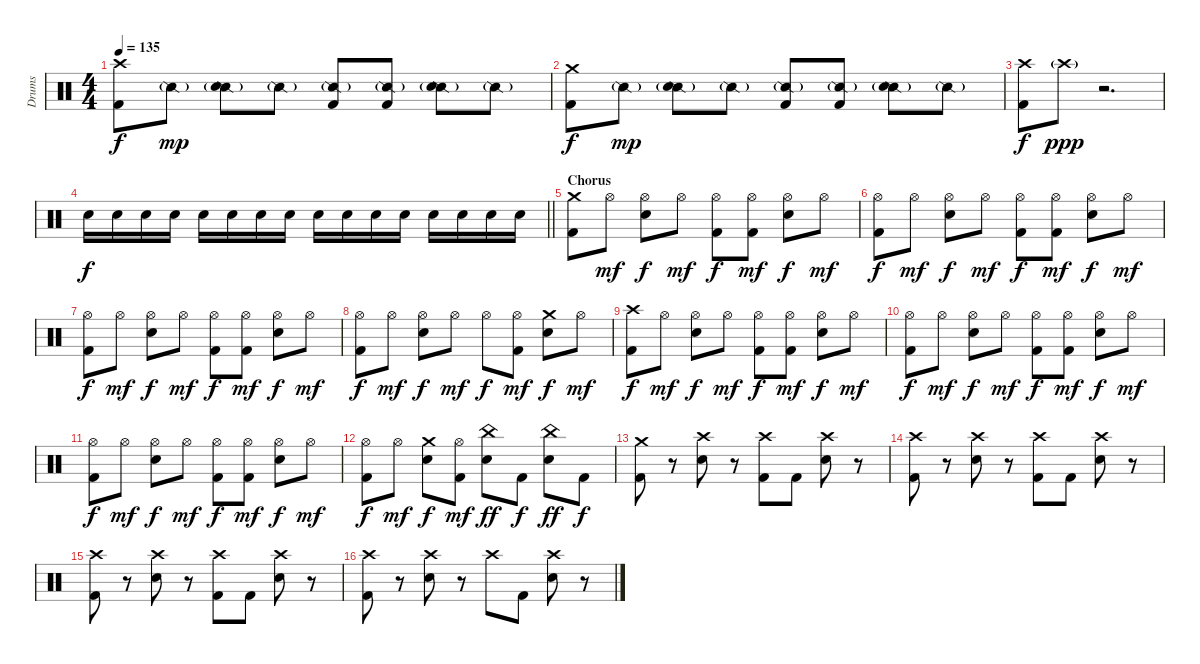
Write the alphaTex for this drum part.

\track ("Drums" "Drums") {instrument percussion}
\staff {score}
\articulation defaults
\ts (4 4)
\tempo 135
\clef neutral
\ks c
("Crash high (hit)" "Kick (hit) 2").8{dy f} "Snare (side stick) 2"{g}.8{dy mp} ("Snare (side stick) 2"{g} "Snare (hit) 2").8 "Snare (side stick) 2"{g}.8 ("Snare (side stick) 2"{g} "Kick (hit) 2").8 ("Snare (side stick) 2"{g} "Kick (hit) 2").8 ("Snare (side stick) 2"{g} "Snare (hit) 2").8 "Snare (side stick) 2"{g}.8 |
("Crash medium (hit)" "Kick (hit) 2").8{dy f} "Snare (side stick) 2"{g}.8{dy mp} ("Snare (side stick) 2"{g} "Snare (hit) 2").8 "Snare (side stick) 2"{g}.8 ("Snare (side stick) 2"{g} "Kick (hit) 2").8 ("Snare (side stick) 2"{g} "Kick (hit) 2").8 ("Snare (side stick) 2"{g} "Snare (hit) 2").8 "Snare (side stick) 2"{g}.8 |
("Crash high (hit)" "Kick (hit) 2").8{dy f} "Crash high (hit)"{g}.8{dy ppp} r.2{d} |
\barLineRight lightlight "Electric Snare (hit)".16{dy f} "Electric Snare (hit)".16 "Electric Snare (hit)".16 "Electric Snare (hit)".16 "Electric Snare (hit)".16 "Electric Snare (hit)".16 "Electric Snare (hit)".16 "Electric Snare (hit)".16 "Electric Snare (hit)".16 "Electric Snare (hit)".16 "Electric Snare (hit)".16 "Electric Snare (hit)".16 "Electric Snare (hit)".16 "Electric Snare (hit)".16 "Electric Snare (hit)".16 "Electric Snare (hit)".16
|
\section ("" "Chorus")
("Crash medium (hit)" "Kick (hit) 2").8 "Hi-Hat (open)".8{dy mf} ("Hi-Hat (open)" "Electric Snare (hit)").8{dy f} "Hi-Hat (open)".8{dy mf} ("Hi-Hat (open)" "Kick (hit) 2").8{dy f} ("Hi-Hat (open)" "Kick (hit) 2").8{dy mf} ("Hi-Hat (open)" "Electric Snare (hit)").8{dy f} "Hi-Hat (open)".8{dy mf} |
("Hi-Hat (open)" "Kick (hit) 2").8{dy f} "Hi-Hat (open)".8{dy mf} ("Hi-Hat (open)" "Electric Snare (hit)").8{dy f} "Hi-Hat (open)".8{dy mf} ("Hi-Hat (open)" "Kick (hit) 2").8{dy f} ("Hi-Hat (open)" "Kick (hit) 2").8{dy mf} ("Hi-Hat (open)" "Electric Snare (hit)").8{dy f} "Hi-Hat (open)".8{dy mf} |
("Hi-Hat (open)" "Kick (hit) 2").8{dy f} "Hi-Hat (open)".8{dy mf} ("Hi-Hat (open)" "Electric Snare (hit)").8{dy f} "Hi-Hat (open)".8{dy mf} ("Hi-Hat (open)" "Kick (hit) 2").8{dy f} ("Hi-Hat (open)" "Kick (hit) 2").8{dy mf} ("Hi-Hat (open)" "Electric Snare (hit)").8{dy f} "Hi-Hat (open)".8{dy mf} |
("Hi-Hat (open)" "Kick (hit) 2").8{dy f} "Hi-Hat (open)".8{dy mf} ("Hi-Hat (open)" "Electric Snare (hit)").8{dy f} "Hi-Hat (open)".8{dy mf} "Hi-Hat (open)".8{dy f} ("Hi-Hat (open)" "Kick (hit) 2").8{dy mf} ("Crash medium (hit)" "Electric Snare (hit)").8{dy f} "Hi-Hat (open)".8{dy mf} |
("Crash high (hit)" "Kick (hit) 2").8{dy f} "Hi-Hat (open)".8{dy mf} ("Hi-Hat (open)" "Electric Snare (hit)").8{dy f} "Hi-Hat (open)".8{dy mf} ("Hi-Hat (open)" "Kick (hit) 2").8{dy f} ("Hi-Hat (open)" "Kick (hit) 2").8{dy mf} ("Hi-Hat (open)" "Electric Snare (hit)").8{dy f} "Hi-Hat (open)".8{dy mf} |
("Hi-Hat (open)" "Kick (hit) 2").8{dy f} "Hi-Hat (open)".8{dy mf} ("Hi-Hat (open)" "Electric Snare (hit)").8{dy f} "Hi-Hat (open)".8{dy mf} ("Hi-Hat (open)" "Kick (hit) 2").8{dy f} ("Hi-Hat (open)" "Kick (hit) 2").8{dy mf} ("Hi-Hat (open)" "Electric Snare (hit)").8{dy f} "Hi-Hat (open)".8{dy mf} |
("Hi-Hat (open)" "Kick (hit) 2").8{dy f} "Hi-Hat (open)".8{dy mf} ("Hi-Hat (open)" "Electric Snare (hit)").8{dy f} "Hi-Hat (open)".8{dy mf} ("Hi-Hat (open)" "Kick (hit) 2").8{dy f} ("Hi-Hat (open)" "Kick (hit) 2").8{dy mf} ("Hi-Hat (open)" "Electric Snare (hit)").8{dy f} "Hi-Hat (open)".8{dy mf} |
("Hi-Hat (open)" "Kick (hit) 2").8{dy f} "Hi-Hat (open)".8{dy mf} ("Crash medium (hit)" "Electric Snare (hit)").8{dy f} ("Hi-Hat (open)" "Kick (hit) 2").8{dy mf} ("China (hit)" "Electric Snare (hit)").8{dy ff} "Kick (hit) 2".8{dy f} ("China (hit)" "Electric Snare (hit)").8{dy ff} "Kick (hit) 2".8{dy f} |
("Crash medium (hit)" "Kick (hit) 2").8 r.8 ("Crash high (hit)" "Electric Snare (hit)").8 r.8 ("Crash high (hit)" "Kick (hit) 2").8 "Kick (hit) 2".8 ("Crash high (hit)" "Electric Snare (hit)").8 r.8 |
("Crash high (hit)" "Kick (hit) 2").8 r.8 ("Crash high (hit)" "Electric Snare (hit)").8 r.8 ("Crash high (hit)" "Kick (hit) 2").8 "Kick (hit) 2".8 ("Crash high (hit)" "Electric Snare (hit)").8 r.8 |
("Crash high (hit)" "Kick (hit) 2").8 r.8 ("Crash high (hit)" "Electric Snare (hit)").8 r.8 ("Crash high (hit)" "Kick (hit) 2").8 "Kick (hit) 2".8 ("Crash high (hit)" "Electric Snare (hit)").8 r.8 |
("Crash high (hit)" "Kick (hit) 2").8 r.8 ("Crash high (hit)" "Electric Snare (hit)").8 r.8 "Crash high (hit)".8 "Kick (hit) 2".8 ("Crash high (hit)" "Electric Snare (hit)").8 r.8
